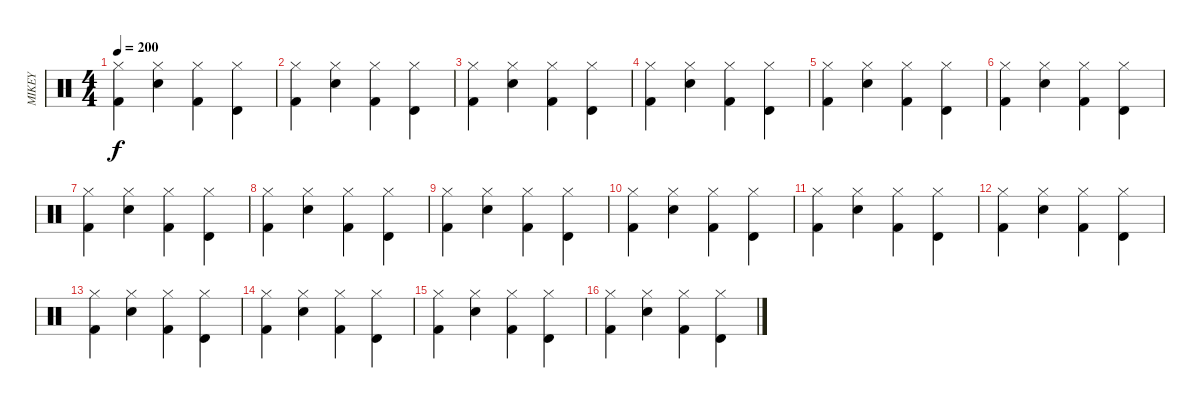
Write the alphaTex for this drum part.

\track ("MIKEY" "MIKEY") {instrument percussion}
\staff {score}
\articulation defaults
\ts (4 4)
\tempo 200
\clef neutral
\ks c
("Hi-Hat (closed)" "Kick (hit) 2").4{dy f} ("Hi-Hat (closed)" "Snare (hit) 2").4 ("Hi-Hat (closed)" "Kick (hit) 2").4 ("Hi-Hat (closed)" "Timbale high (hit)").4 |
("Hi-Hat (closed)" "Kick (hit) 2").4 ("Hi-Hat (closed)" "Snare (hit) 2").4 ("Hi-Hat (closed)" "Kick (hit) 2").4 ("Hi-Hat (closed)" "Timbale high (hit)").4 |
("Hi-Hat (closed)" "Kick (hit) 2").4 ("Hi-Hat (closed)" "Snare (hit) 2").4 ("Hi-Hat (closed)" "Kick (hit) 2").4 ("Hi-Hat (closed)" "Timbale high (hit)").4 |
("Hi-Hat (closed)" "Kick (hit) 2").4 ("Hi-Hat (closed)" "Snare (hit) 2").4 ("Hi-Hat (closed)" "Kick (hit) 2").4 ("Hi-Hat (closed)" "Timbale high (hit)").4 |
("Hi-Hat (closed)" "Kick (hit) 2").4 ("Hi-Hat (closed)" "Snare (hit) 2").4 ("Hi-Hat (closed)" "Kick (hit) 2").4 ("Hi-Hat (closed)" "Timbale high (hit)").4 |
("Hi-Hat (closed)" "Kick (hit) 2").4 ("Hi-Hat (closed)" "Snare (hit) 2").4 ("Hi-Hat (closed)" "Kick (hit) 2").4 ("Hi-Hat (closed)" "Timbale high (hit)").4 |
("Hi-Hat (closed)" "Kick (hit) 2").4 ("Hi-Hat (closed)" "Snare (hit) 2").4 ("Hi-Hat (closed)" "Kick (hit) 2").4 ("Hi-Hat (closed)" "Timbale high (hit)").4 |
("Hi-Hat (closed)" "Kick (hit) 2").4 ("Hi-Hat (closed)" "Snare (hit) 2").4 ("Hi-Hat (closed)" "Kick (hit) 2").4 ("Hi-Hat (closed)" "Timbale high (hit)").4 |
("Hi-Hat (closed)" "Kick (hit) 2").4 ("Hi-Hat (closed)" "Snare (hit) 2").4 ("Hi-Hat (closed)" "Kick (hit) 2").4 ("Hi-Hat (closed)" "Timbale high (hit)").4 |
("Hi-Hat (closed)" "Kick (hit) 2").4 ("Hi-Hat (closed)" "Snare (hit) 2").4 ("Hi-Hat (closed)" "Kick (hit) 2").4 ("Hi-Hat (closed)" "Timbale high (hit)").4 |
("Hi-Hat (closed)" "Kick (hit) 2").4 ("Hi-Hat (closed)" "Snare (hit) 2").4 ("Hi-Hat (closed)" "Kick (hit) 2").4 ("Hi-Hat (closed)" "Timbale high (hit)").4 |
("Hi-Hat (closed)" "Kick (hit) 2").4 ("Hi-Hat (closed)" "Snare (hit) 2").4 ("Hi-Hat (closed)" "Kick (hit) 2").4 ("Hi-Hat (closed)" "Timbale high (hit)").4 |
("Hi-Hat (closed)" "Kick (hit) 2").4 ("Hi-Hat (closed)" "Snare (hit) 2").4 ("Hi-Hat (closed)" "Kick (hit) 2").4 ("Hi-Hat (closed)" "Timbale high (hit)").4 |
("Hi-Hat (closed)" "Kick (hit) 2").4 ("Hi-Hat (closed)" "Snare (hit) 2").4 ("Hi-Hat (closed)" "Kick (hit) 2").4 ("Hi-Hat (closed)" "Timbale high (hit)").4 |
("Hi-Hat (closed)" "Kick (hit) 2").4 ("Hi-Hat (closed)" "Snare (hit) 2").4 ("Hi-Hat (closed)" "Kick (hit) 2").4 ("Hi-Hat (closed)" "Timbale high (hit)").4 |
("Hi-Hat (closed)" "Kick (hit) 2").4 ("Hi-Hat (closed)" "Snare (hit) 2").4 ("Hi-Hat (closed)" "Kick (hit) 2").4 ("Hi-Hat (closed)" "Timbale high (hit)").4
